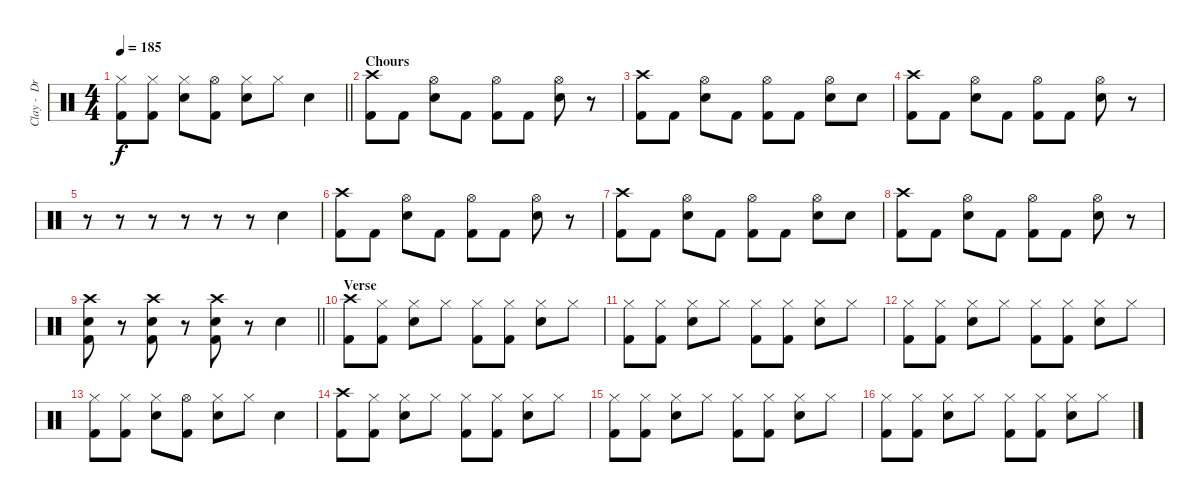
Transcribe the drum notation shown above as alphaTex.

\track ("Clay -  Drums" "Clay -  Dr") {instrument percussion}
\staff {score}
\articulation defaults
\ts (4 4)
\tempo 185
\clef neutral
\barLineRight lightlight
\ks c
("Hi-Hat (closed)" "Kick (hit) 2").8{dy f} ("Hi-Hat (closed)" "Kick (hit) 2").8 ("Hi-Hat (closed)" "Electric Snare (hit)").8 ("Hi-Hat (open)" "Kick (hit) 2").8 ("Hi-Hat (closed)" "Electric Snare (hit)").8 "Hi-Hat (closed)".8 "Electric Snare (hit)".4 |
\section ("" "Chours")
("Crash high (hit)" "Kick (hit) 2").8 "Kick (hit) 2".8 ("Hi-Hat (open)" "Electric Snare (hit)").8 "Kick (hit) 2".8 ("Hi-Hat (open)" "Kick (hit) 2").8 "Kick (hit) 2".8 ("Hi-Hat (open)" "Electric Snare (hit)").8 r.8 |
("Crash high (hit)" "Kick (hit) 2").8 "Kick (hit) 2".8 ("Hi-Hat (open)" "Electric Snare (hit)").8 "Kick (hit) 2".8 ("Hi-Hat (open)" "Kick (hit) 2").8 "Kick (hit) 2".8 ("Hi-Hat (open)" "Electric Snare (hit)").8 "Electric Snare (hit)".8 |
("Crash high (hit)" "Kick (hit) 2").8 "Kick (hit) 2".8 ("Hi-Hat (open)" "Electric Snare (hit)").8 "Kick (hit) 2".8 ("Hi-Hat (open)" "Kick (hit) 2").8 "Kick (hit) 2".8 ("Hi-Hat (open)" "Electric Snare (hit)").8 r.8 |
r.8 r.8 r.8 r.8 r.8 r.8 "Electric Snare (hit)".4 |
("Crash high (hit)" "Kick (hit) 2").8 "Kick (hit) 2".8 ("Hi-Hat (open)" "Electric Snare (hit)").8 "Kick (hit) 2".8 ("Hi-Hat (open)" "Kick (hit) 2").8 "Kick (hit) 2".8 ("Hi-Hat (open)" "Electric Snare (hit)").8 r.8 |
("Crash high (hit)" "Kick (hit) 2").8 "Kick (hit) 2".8 ("Hi-Hat (open)" "Electric Snare (hit)").8 "Kick (hit) 2".8 ("Hi-Hat (open)" "Kick (hit) 2").8 "Kick (hit) 2".8 ("Hi-Hat (open)" "Electric Snare (hit)").8 "Electric Snare (hit)".8 |
("Crash high (hit)" "Kick (hit) 2").8 "Kick (hit) 2".8 ("Hi-Hat (open)" "Electric Snare (hit)").8 "Kick (hit) 2".8 ("Hi-Hat (open)" "Kick (hit) 2").8 "Kick (hit) 2".8 ("Hi-Hat (open)" "Electric Snare (hit)").8 r.8 |
\barLineRight lightlight
("Crash high (hit)" "Electric Snare (hit)" "Kick (hit) 2").8 r.8 ("Crash high (hit)" "Electric Snare (hit)" "Kick (hit) 2").8 r.8 ("Crash high (hit)" "Electric Snare (hit)" "Kick (hit) 2").8 r.8 "Electric Snare (hit)".4 |
\section ("" "Verse")
("Crash high (hit)" "Kick (hit) 2").8 ("Hi-Hat (closed)" "Kick (hit) 2").8 ("Hi-Hat (closed)" "Electric Snare (hit)").8 "Hi-Hat (closed)".8 ("Hi-Hat (closed)" "Kick (hit) 2").8 ("Hi-Hat (closed)" "Kick (hit) 2").8 ("Hi-Hat (closed)" "Electric Snare (hit)").8 "Hi-Hat (closed)".8 |
("Hi-Hat (closed)" "Kick (hit) 2").8 ("Hi-Hat (closed)" "Kick (hit) 2").8 ("Hi-Hat (closed)" "Electric Snare (hit)").8 "Hi-Hat (closed)".8 ("Hi-Hat (closed)" "Kick (hit) 2").8 ("Hi-Hat (closed)" "Kick (hit) 2").8 ("Hi-Hat (closed)" "Electric Snare (hit)").8 "Hi-Hat (closed)".8 |
("Hi-Hat (closed)" "Kick (hit) 2").8 ("Hi-Hat (closed)" "Kick (hit) 2").8 ("Hi-Hat (closed)" "Electric Snare (hit)").8 "Hi-Hat (closed)".8 ("Hi-Hat (closed)" "Kick (hit) 2").8 ("Hi-Hat (closed)" "Kick (hit) 2").8 ("Hi-Hat (closed)" "Electric Snare (hit)").8 "Hi-Hat (closed)".8 |
("Hi-Hat (closed)" "Kick (hit) 2").8 ("Hi-Hat (closed)" "Kick (hit) 2").8 ("Hi-Hat (closed)" "Electric Snare (hit)").8 ("Hi-Hat (open)" "Kick (hit) 2").8 ("Hi-Hat (closed)" "Electric Snare (hit)").8 "Hi-Hat (closed)".8 "Electric Snare (hit)".4 |
("Crash high (hit)" "Kick (hit) 2").8 ("Hi-Hat (closed)" "Kick (hit) 2").8 ("Hi-Hat (closed)" "Electric Snare (hit)").8 "Hi-Hat (closed)".8 ("Hi-Hat (closed)" "Kick (hit) 2").8 ("Hi-Hat (closed)" "Kick (hit) 2").8 ("Hi-Hat (closed)" "Electric Snare (hit)").8 "Hi-Hat (closed)".8 |
("Hi-Hat (closed)" "Kick (hit) 2").8 ("Hi-Hat (closed)" "Kick (hit) 2").8 ("Hi-Hat (closed)" "Electric Snare (hit)").8 "Hi-Hat (closed)".8 ("Hi-Hat (closed)" "Kick (hit) 2").8 ("Hi-Hat (closed)" "Kick (hit) 2").8 ("Hi-Hat (closed)" "Electric Snare (hit)").8 "Hi-Hat (closed)".8 |
("Hi-Hat (closed)" "Kick (hit) 2").8 ("Hi-Hat (closed)" "Kick (hit) 2").8 ("Hi-Hat (closed)" "Electric Snare (hit)").8 "Hi-Hat (closed)".8 ("Hi-Hat (closed)" "Kick (hit) 2").8 ("Hi-Hat (closed)" "Kick (hit) 2").8 ("Hi-Hat (closed)" "Electric Snare (hit)").8 "Hi-Hat (closed)".8
